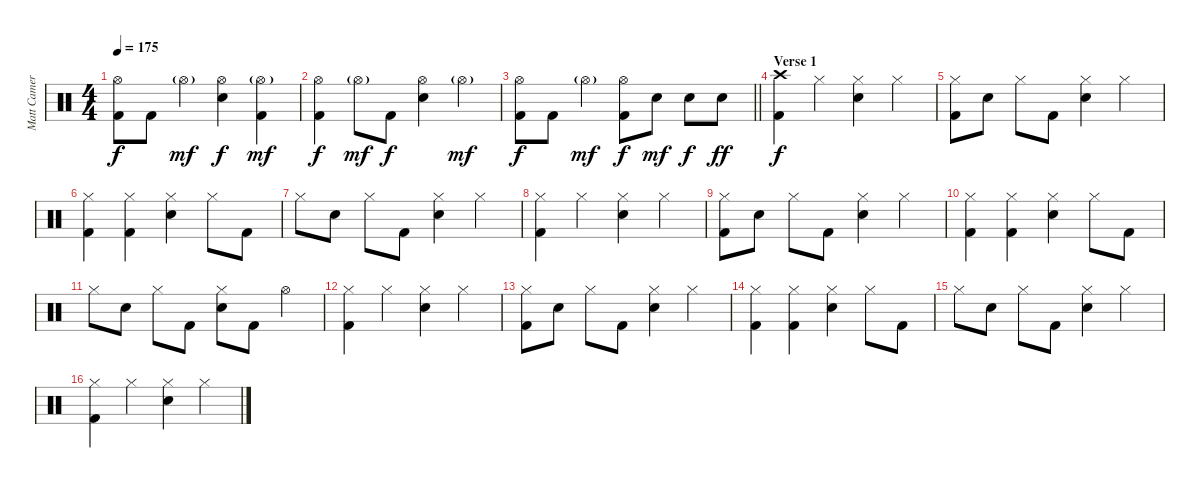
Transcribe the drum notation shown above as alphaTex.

\track ("Matt Cameron Drum" "Matt Camer") {instrument percussion}
\staff {score}
\articulation defaults
\ts (4 4)
\tempo 175
\clef neutral
\ks c
("Hi-Hat (open)" "Kick (hit) 2").8{dy f} "Kick (hit) 2".8 "Hi-Hat (open)"{g}.4{dy mf} ("Hi-Hat (open)" "Electric Snare (hit)").4{dy f} ("Hi-Hat (open)"{g} "Kick (hit) 2").4{dy mf} |
("Hi-Hat (open)" "Kick (hit) 2").4{dy f} "Hi-Hat (open)"{g}.8{dy mf} "Kick (hit) 2".8{dy f} ("Hi-Hat (open)" "Electric Snare (hit)").4 "Hi-Hat (open)"{g}.4{dy mf} |
\barLineRight lightlight
("Hi-Hat (open)" "Kick (hit) 2").8{dy f} "Kick (hit) 2".8 "Hi-Hat (open)"{g}.4{dy mf} ("Hi-Hat (open)" "Kick (hit) 2").8{dy f} "Electric Snare (hit)".8{dy mf} "Electric Snare (hit)".8{dy f} "Electric Snare (hit)".8{dy ff} |
\section ("" "Verse 1")
("Crash high (hit)" "Kick (hit) 2").4{dy f} "Hi-Hat (closed)".4 ("Hi-Hat (closed)" "Electric Snare (hit)").4 "Hi-Hat (closed)".4 |
("Hi-Hat (closed)" "Kick (hit) 2").8 "Electric Snare (hit)".8 "Hi-Hat (closed)".8 "Kick (hit) 2".8 ("Hi-Hat (closed)" "Electric Snare (hit)").4 "Hi-Hat (closed)".4 |
("Hi-Hat (closed)" "Kick (hit) 2").4 ("Hi-Hat (closed)" "Kick (hit) 2").4 ("Hi-Hat (closed)" "Electric Snare (hit)").4 "Hi-Hat (closed)".8 "Kick (hit) 2".8 |
"Hi-Hat (closed)".8 "Electric Snare (hit)".8 "Hi-Hat (closed)".8 "Kick (hit) 2".8 ("Hi-Hat (closed)" "Electric Snare (hit)").4 "Hi-Hat (closed)".4 |
("Hi-Hat (closed)" "Kick (hit) 2").4 "Hi-Hat (closed)".4 ("Hi-Hat (closed)" "Electric Snare (hit)").4 "Hi-Hat (closed)".4 |
("Hi-Hat (closed)" "Kick (hit) 2").8 "Electric Snare (hit)".8 "Hi-Hat (closed)".8 "Kick (hit) 2".8 ("Hi-Hat (closed)" "Electric Snare (hit)").4 "Hi-Hat (closed)".4 |
("Hi-Hat (closed)" "Kick (hit) 2").4 ("Hi-Hat (closed)" "Kick (hit) 2").4 ("Hi-Hat (closed)" "Electric Snare (hit)").4 "Hi-Hat (closed)".8 "Kick (hit) 2".8 |
"Hi-Hat (closed)".8 "Electric Snare (hit)".8 "Hi-Hat (closed)".8 "Kick (hit) 2".8 ("Hi-Hat (closed)" "Electric Snare (hit)").8 "Kick (hit) 2".8 "Hi-Hat (open)".4 |
("Hi-Hat (closed)" "Kick (hit) 2").4 "Hi-Hat (closed)".4 ("Hi-Hat (closed)" "Electric Snare (hit)").4 "Hi-Hat (closed)".4 |
("Hi-Hat (closed)" "Kick (hit) 2").8 "Electric Snare (hit)".8 "Hi-Hat (closed)".8 "Kick (hit) 2".8 ("Hi-Hat (closed)" "Electric Snare (hit)").4 "Hi-Hat (closed)".4 |
("Hi-Hat (closed)" "Kick (hit) 2").4 ("Hi-Hat (closed)" "Kick (hit) 2").4 ("Hi-Hat (closed)" "Electric Snare (hit)").4 "Hi-Hat (closed)".8 "Kick (hit) 2".8 |
"Hi-Hat (closed)".8 "Electric Snare (hit)".8 "Hi-Hat (closed)".8 "Kick (hit) 2".8 ("Hi-Hat (closed)" "Electric Snare (hit)").4 "Hi-Hat (closed)".4 |
("Hi-Hat (closed)" "Kick (hit) 2").4 "Hi-Hat (closed)".4 ("Hi-Hat (closed)" "Electric Snare (hit)").4 "Hi-Hat (closed)".4
